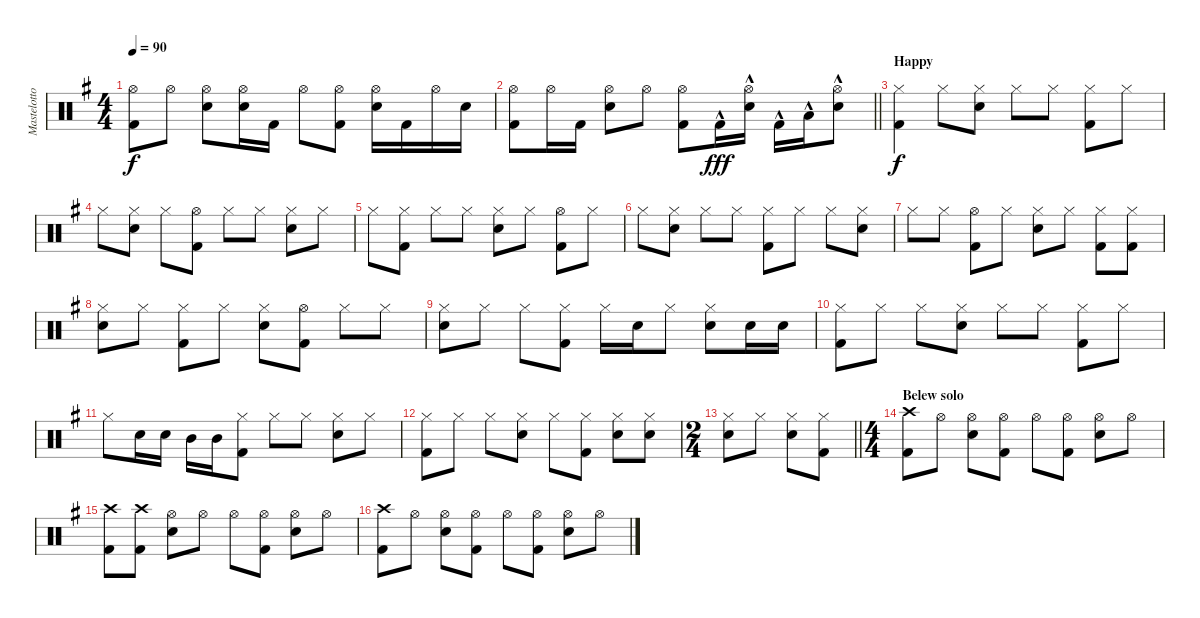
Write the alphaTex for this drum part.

\track ("Mastelotto" "Mastelotto") {instrument percussion}
\staff {score}
\articulation defaults
\ts (4 4)
\tempo 90
\clef neutral
\ks eminor
("Hi-Hat (open)" "Kick (hit) 2").8{dy f} "Hi-Hat (open)".8 ("Hi-Hat (open)" "Electric Snare (hit)").8 ("Hi-Hat (open)" "Electric Snare (hit)").16 "Kick (hit) 2".16 "Hi-Hat (open)".8 ("Hi-Hat (open)" "Kick (hit) 2").8 ("Hi-Hat (open)" "Electric Snare (hit)").16 "Kick (hit) 2".16 "Hi-Hat (open)".16 "Electric Snare (hit)".16 |
\barLineRight lightlight
("Hi-Hat (open)" "Kick (hit) 2").8 "Hi-Hat (open)".16 "Kick (hit) 2".16 ("Hi-Hat (open)" "Electric Snare (hit)").8 "Hi-Hat (open)".8 ("Hi-Hat (open)" "Kick (hit) 2").8 "Kick (hit) 2"{hac}.16{dy fff} ("Hi-Hat (open)"{hac} "Electric Snare (hit)"{hac}).16 "Kick (hit) 2"{hac}.16 "Low Tom (hit)"{hac}.16 ("Hi-Hat (open)"{hac} "Electric Snare (hit)"{hac}).8 |
\section ("" "Happy")
("Hi-Hat (closed)" "Kick (hit) 2").4{dy f} "Hi-Hat (closed)".8 ("Hi-Hat (closed)" "Electric Snare (hit)").8 "Hi-Hat (closed)".8 "Hi-Hat (closed)".8 ("Hi-Hat (closed)" "Kick (hit) 2").8 "Hi-Hat (closed)".8 |
"Hi-Hat (closed)".8 ("Hi-Hat (closed)" "Electric Snare (hit)").8 "Hi-Hat (closed)".8 ("Hi-Hat (open)" "Kick (hit) 2").8 "Hi-Hat (closed)".8 "Hi-Hat (closed)".8 ("Hi-Hat (closed)" "Electric Snare (hit)").8 "Hi-Hat (closed)".8 |
"Hi-Hat (closed)".8 ("Hi-Hat (closed)" "Kick (hit) 2").8 "Hi-Hat (closed)".8 "Hi-Hat (closed)".8 ("Hi-Hat (closed)" "Electric Snare (hit)").8 "Hi-Hat (closed)".8 ("Hi-Hat (open)" "Kick (hit) 2").8 "Hi-Hat (closed)".8 |
"Hi-Hat (closed)".8 ("Hi-Hat (closed)" "Electric Snare (hit)").8 "Hi-Hat (closed)".8 "Hi-Hat (closed)".8 ("Hi-Hat (closed)" "Kick (hit) 2").8 "Hi-Hat (closed)".8 "Hi-Hat (closed)".8 ("Hi-Hat (closed)" "Electric Snare (hit)").8 |
"Hi-Hat (closed)".8 "Hi-Hat (closed)".8 ("Hi-Hat (open)" "Kick (hit) 2").8 "Hi-Hat (closed)".8 ("Hi-Hat (closed)" "Electric Snare (hit)").8 "Hi-Hat (closed)".8 ("Hi-Hat (closed)" "Kick (hit) 2").8 ("Hi-Hat (closed)" "Kick (hit) 2").8 |
("Hi-Hat (closed)" "Electric Snare (hit)").8 "Hi-Hat (closed)".8 ("Hi-Hat (closed)" "Kick (hit) 2").8 "Hi-Hat (closed)".8 ("Hi-Hat (closed)" "Electric Snare (hit)").8 ("Hi-Hat (open)" "Kick (hit) 2").8 "Hi-Hat (closed)".8 "Hi-Hat (closed)".8 |
("Hi-Hat (closed)" "Electric Snare (hit)").8 "Hi-Hat (closed)".8 "Hi-Hat (closed)".8 ("Hi-Hat (closed)" "Kick (hit) 2").8 "Hi-Hat (closed)".16 "Electric Snare (hit)".16 "Hi-Hat (closed)".8 ("Hi-Hat (closed)" "Electric Snare (hit)").8 "Electric Snare (hit)".16 "Electric Snare (hit)".16 |
("Hi-Hat (closed)" "Kick (hit) 2").8 "Hi-Hat (closed)".8 "Hi-Hat (closed)".8 ("Hi-Hat (closed)" "Electric Snare (hit)").8 "Hi-Hat (closed)".8 "Hi-Hat (closed)".8 ("Hi-Hat (closed)" "Kick (hit) 2").8 "Hi-Hat (closed)".8 |
"Hi-Hat (closed)".8 "Electric Snare (hit)".16 "Electric Snare (hit)".16 "Mid Tom (hit)".16 "Mid Tom (hit)".16 ("Hi-Hat (closed)" "Kick (hit) 2").8 "Hi-Hat (closed)".8 "Hi-Hat (closed)".8 ("Hi-Hat (closed)" "Electric Snare (hit)").8 "Hi-Hat (closed)".8 |
("Hi-Hat (closed)" "Kick (hit) 2").8 "Hi-Hat (closed)".8 "Hi-Hat (closed)".8 ("Hi-Hat (closed)" "Electric Snare (hit)").8 "Hi-Hat (closed)".8 ("Hi-Hat (closed)" "Kick (hit) 2").8 ("Hi-Hat (closed)" "Electric Snare (hit)").8 ("Hi-Hat (closed)" "Electric Snare (hit)").8 |
\ts (2 4)
\barLineRight lightlight
("Hi-Hat (closed)" "Electric Snare (hit)").8 "Hi-Hat (closed)".8 ("Hi-Hat (closed)" "Electric Snare (hit)").8 ("Hi-Hat (closed)" "Kick (hit) 2").8 |
\ts (4 4)
\section ("" "Belew solo")
("Crash high (hit)" "Kick (hit) 2").8 "Hi-Hat (open)".8 ("Hi-Hat (open)" "Electric Snare (hit)").8 ("Hi-Hat (open)" "Kick (hit) 2").8 "Hi-Hat (open)".8 ("Hi-Hat (open)" "Kick (hit) 2").8 ("Hi-Hat (open)" "Electric Snare (hit)").8 "Hi-Hat (open)".8 |
("Crash high (hit)" "Kick (hit) 2").8 ("Crash high (hit)" "Kick (hit) 2").8 ("Hi-Hat (open)" "Electric Snare (hit)").8 "Hi-Hat (open)".8 "Hi-Hat (open)".8 ("Hi-Hat (open)" "Kick (hit) 2").8 ("Hi-Hat (open)" "Electric Snare (hit)").8 "Hi-Hat (open)".8 |
("Crash high (hit)" "Kick (hit) 2").8 "Hi-Hat (open)".8 ("Hi-Hat (open)" "Electric Snare (hit)").8 ("Hi-Hat (open)" "Kick (hit) 2").8 "Hi-Hat (open)".8 ("Hi-Hat (open)" "Kick (hit) 2").8 ("Hi-Hat (open)" "Electric Snare (hit)").8 "Hi-Hat (open)".8
